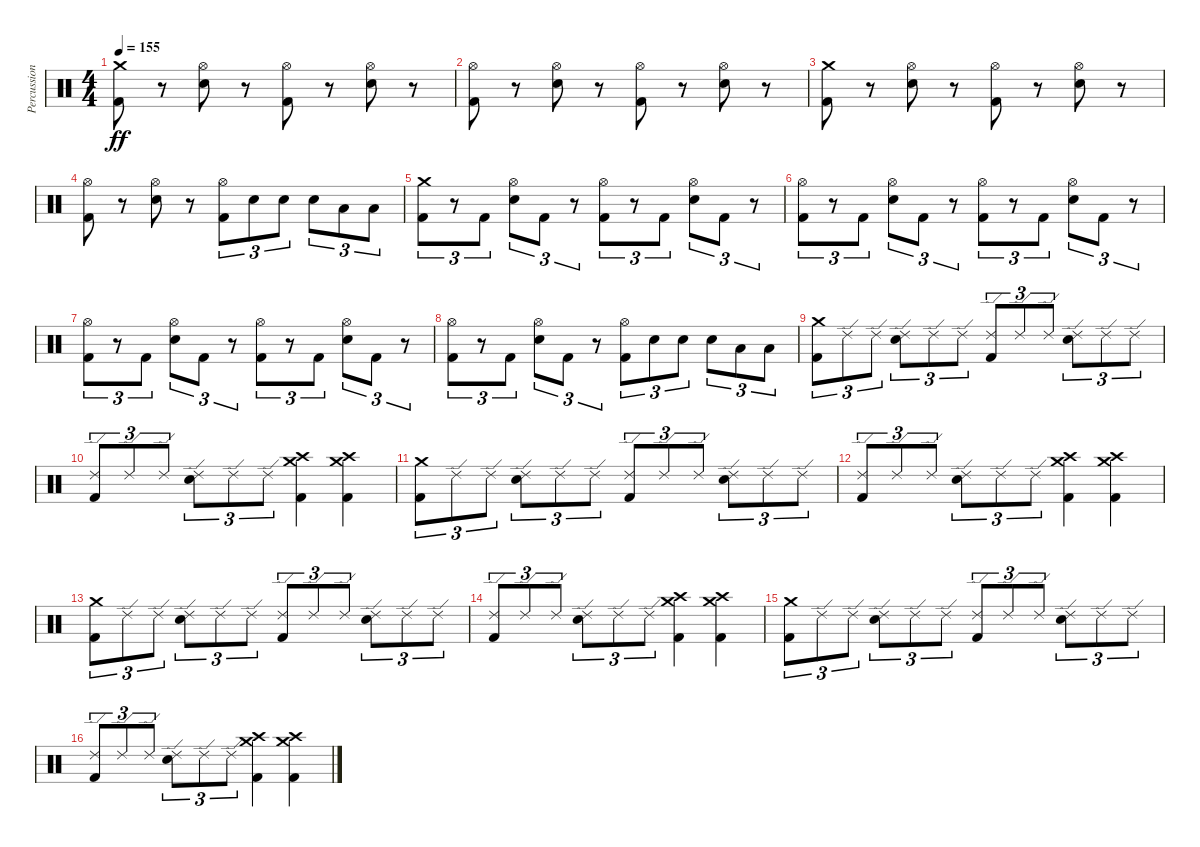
\track ("Percussion" "Percussion") {instrument percussion}
\staff {score}
\articulation defaults
\ts (4 4)
\tempo 155
\clef neutral
\ks c
("Kick (hit) 2" "Crash medium (hit)").8{dy ff} r.8 ("Electric Snare (hit)" "Hi-Hat (open)").8 r.8 ("Kick (hit) 2" "Hi-Hat (open)").8 r.8 ("Electric Snare (hit)" "Hi-Hat (open)").8 r.8 |
("Kick (hit) 2" "Hi-Hat (open)").8 r.8 ("Electric Snare (hit)" "Hi-Hat (open)").8 r.8 ("Kick (hit) 2" "Hi-Hat (open)").8 r.8 ("Electric Snare (hit)" "Hi-Hat (open)").8 r.8 |
("Kick (hit) 2" "Crash medium (hit)").8 r.8 ("Electric Snare (hit)" "Hi-Hat (open)").8 r.8 ("Kick (hit) 2" "Hi-Hat (open)").8 r.8 ("Electric Snare (hit)" "Hi-Hat (open)").8 r.8 |
("Kick (hit) 2" "Hi-Hat (open)").8 r.8 ("Electric Snare (hit)" "Hi-Hat (open)").8 r.8 ("Kick (hit) 2" "Hi-Hat (open)").8{tu (3 2)} "Electric Snare (hit)".8{tu (3 2)} "Electric Snare (hit)".8{tu (3 2)} "Electric Snare (hit)".8{tu (3 2)} "Low Tom (hit)".8{tu (3 2)} "Low Tom (hit)".8{tu (3 2)} |
("Kick (hit) 2" "Crash medium (hit)").8{tu (3 2)} r.8{tu (3 2)} "Kick (hit) 2".8{tu (3 2)} ("Electric Snare (hit)" "Hi-Hat (open)").8{tu (3 2)} "Kick (hit) 2".8{tu (3 2)} r.8{tu (3 2)} ("Kick (hit) 2" "Hi-Hat (open)").8{tu (3 2)} r.8{tu (3 2)} "Kick (hit) 2".8{tu (3 2)} ("Electric Snare (hit)" "Hi-Hat (open)").8{tu (3 2)} "Kick (hit) 2".8{tu (3 2)} r.8{tu (3 2)} |
("Kick (hit) 2" "Hi-Hat (open)").8{tu (3 2)} r.8{tu (3 2)} "Kick (hit) 2".8{tu (3 2)} ("Electric Snare (hit)" "Hi-Hat (open)").8{tu (3 2)} "Kick (hit) 2".8{tu (3 2)} r.8{tu (3 2)} ("Kick (hit) 2" "Hi-Hat (open)").8{tu (3 2)} r.8{tu (3 2)} "Kick (hit) 2".8{tu (3 2)} ("Electric Snare (hit)" "Hi-Hat (open)").8{tu (3 2)} "Kick (hit) 2".8{tu (3 2)} r.8{tu (3 2)} |
("Kick (hit) 2" "Hi-Hat (open)").8{tu (3 2)} r.8{tu (3 2)} "Kick (hit) 2".8{tu (3 2)} ("Electric Snare (hit)" "Hi-Hat (open)").8{tu (3 2)} "Kick (hit) 2".8{tu (3 2)} r.8{tu (3 2)} ("Kick (hit) 2" "Hi-Hat (open)").8{tu (3 2)} r.8{tu (3 2)} "Kick (hit) 2".8{tu (3 2)} ("Electric Snare (hit)" "Hi-Hat (open)").8{tu (3 2)} "Kick (hit) 2".8{tu (3 2)} r.8{tu (3 2)} |
("Kick (hit) 2" "Hi-Hat (open)").8{tu (3 2)} r.8{tu (3 2)} "Kick (hit) 2".8{tu (3 2)} ("Electric Snare (hit)" "Hi-Hat (open)").8{tu (3 2)} "Kick (hit) 2".8{tu (3 2)} r.8{tu (3 2)} ("Kick (hit) 2" "Hi-Hat (open)").8{tu (3 2)} "Electric Snare (hit)".8{tu (3 2)} "Electric Snare (hit)".8{tu (3 2)} "Electric Snare (hit)".8{tu (3 2)} "Low Tom (hit)".8{tu (3 2)} "Low Tom (hit)".8{tu (3 2)} |
("Kick (hit) 2" "Crash medium (hit)").8{tu (3 2)} "Ride (edge) 2".8{tu (3 2)} "Ride (edge) 2".8{tu (3 2)} ("Electric Snare (hit)" "Ride (edge) 2").8{tu (3 2)} "Ride (edge) 2".8{tu (3 2)} "Ride (edge) 2".8{tu (3 2)} ("Kick (hit) 2" "Ride (edge) 2").8{tu (3 2)} "Ride (edge) 2".8{tu (3 2)} "Ride (edge) 2".8{tu (3 2)} ("Electric Snare (hit)" "Ride (edge) 2").8{tu (3 2)} "Ride (edge) 2".8{tu (3 2)} "Ride (edge) 2".8{tu (3 2)} |
("Kick (hit) 2" "Ride (edge) 2").8{tu (3 2)} "Ride (edge) 2".8{tu (3 2)} "Ride (edge) 2".8{tu (3 2)} ("Electric Snare (hit)" "Ride (edge) 2").8{tu (3 2)} "Ride (edge) 2".8{tu (3 2)} "Ride (edge) 2".8{tu (3 2)} ("Kick (hit) 2" "Crash medium (hit)" "Crash high (hit)").4 ("Kick (hit) 2" "Crash medium (hit)" "Crash high (hit)").4 |
("Kick (hit) 2" "Crash medium (hit)").8{tu (3 2)} "Ride (edge) 2".8{tu (3 2)} "Ride (edge) 2".8{tu (3 2)} ("Electric Snare (hit)" "Ride (edge) 2").8{tu (3 2)} "Ride (edge) 2".8{tu (3 2)} "Ride (edge) 2".8{tu (3 2)} ("Kick (hit) 2" "Ride (edge) 2").8{tu (3 2)} "Ride (edge) 2".8{tu (3 2)} "Ride (edge) 2".8{tu (3 2)} ("Electric Snare (hit)" "Ride (edge) 2").8{tu (3 2)} "Ride (edge) 2".8{tu (3 2)} "Ride (edge) 2".8{tu (3 2)} |
("Kick (hit) 2" "Ride (edge) 2").8{tu (3 2)} "Ride (edge) 2".8{tu (3 2)} "Ride (edge) 2".8{tu (3 2)} ("Electric Snare (hit)" "Ride (edge) 2").8{tu (3 2)} "Ride (edge) 2".8{tu (3 2)} "Ride (edge) 2".8{tu (3 2)} ("Kick (hit) 2" "Crash medium (hit)" "Crash high (hit)").4 ("Kick (hit) 2" "Crash medium (hit)" "Crash high (hit)").4 |
("Kick (hit) 2" "Crash medium (hit)").8{tu (3 2)} "Ride (edge) 2".8{tu (3 2)} "Ride (edge) 2".8{tu (3 2)} ("Electric Snare (hit)" "Ride (edge) 2").8{tu (3 2)} "Ride (edge) 2".8{tu (3 2)} "Ride (edge) 2".8{tu (3 2)} ("Kick (hit) 2" "Ride (edge) 2").8{tu (3 2)} "Ride (edge) 2".8{tu (3 2)} "Ride (edge) 2".8{tu (3 2)} ("Electric Snare (hit)" "Ride (edge) 2").8{tu (3 2)} "Ride (edge) 2".8{tu (3 2)} "Ride (edge) 2".8{tu (3 2)} |
("Kick (hit) 2" "Ride (edge) 2").8{tu (3 2)} "Ride (edge) 2".8{tu (3 2)} "Ride (edge) 2".8{tu (3 2)} ("Electric Snare (hit)" "Ride (edge) 2").8{tu (3 2)} "Ride (edge) 2".8{tu (3 2)} "Ride (edge) 2".8{tu (3 2)} ("Kick (hit) 2" "Crash medium (hit)" "Crash high (hit)").4 ("Kick (hit) 2" "Crash medium (hit)" "Crash high (hit)").4 |
("Kick (hit) 2" "Crash medium (hit)").8{tu (3 2)} "Ride (edge) 2".8{tu (3 2)} "Ride (edge) 2".8{tu (3 2)} ("Electric Snare (hit)" "Ride (edge) 2").8{tu (3 2)} "Ride (edge) 2".8{tu (3 2)} "Ride (edge) 2".8{tu (3 2)} ("Kick (hit) 2" "Ride (edge) 2").8{tu (3 2)} "Ride (edge) 2".8{tu (3 2)} "Ride (edge) 2".8{tu (3 2)} ("Electric Snare (hit)" "Ride (edge) 2").8{tu (3 2)} "Ride (edge) 2".8{tu (3 2)} "Ride (edge) 2".8{tu (3 2)} |
("Kick (hit) 2" "Ride (edge) 2").8{tu (3 2)} "Ride (edge) 2".8{tu (3 2)} "Ride (edge) 2".8{tu (3 2)} ("Electric Snare (hit)" "Ride (edge) 2").8{tu (3 2)} "Ride (edge) 2".8{tu (3 2)} "Ride (edge) 2".8{tu (3 2)} ("Kick (hit) 2" "Crash medium (hit)" "Crash high (hit)").4 ("Kick (hit) 2" "Crash medium (hit)" "Crash high (hit)").4
